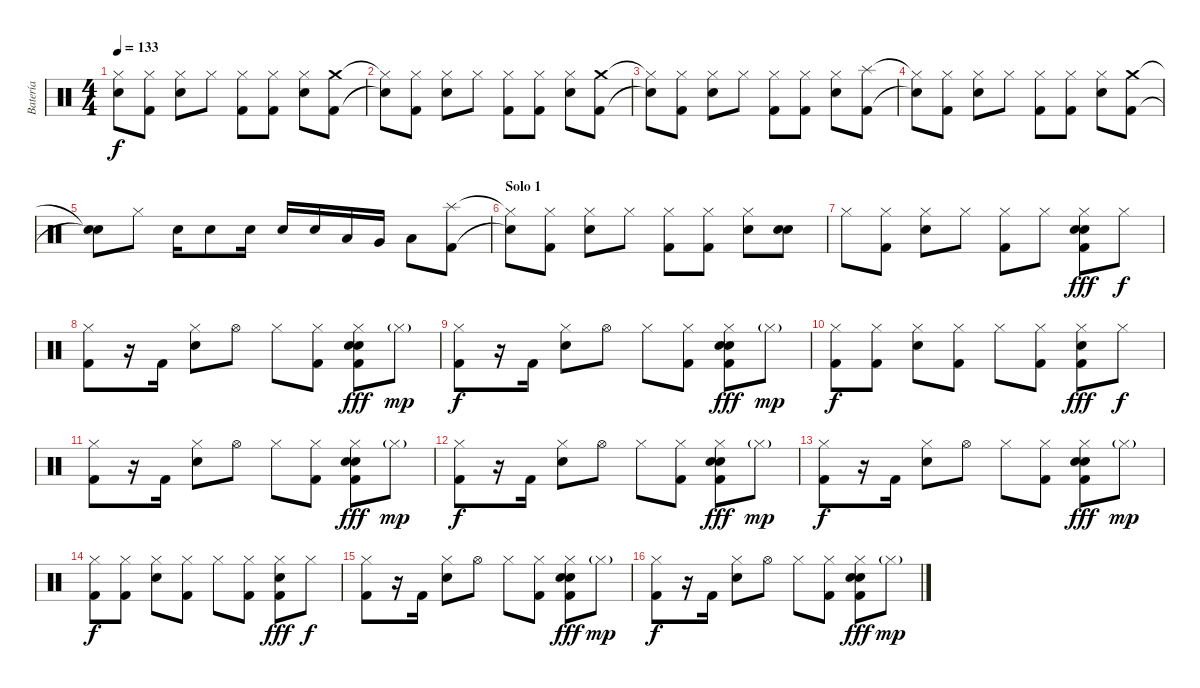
\track ("Batería" "Batería") {instrument percussion}
\staff {score}
\articulation defaults
\ts (4 4)
\tempo 133
\clef neutral
\ks c
("Hi-Hat (closed)"{t} "Snare (hit)"{t}).8{dy f} ("Hi-Hat (closed)" "Kick (hit) 2").8 ("Hi-Hat (closed)" "Snare (hit) 2").8 "Hi-Hat (closed)".8 ("Hi-Hat (closed)" "Kick (hit) 2").8 ("Hi-Hat (closed)" "Kick (hit) 2").8 ("Hi-Hat (closed)" "Snare (hit) 2").8 ("Crash medium (hit)" "Kick (hit) 2").8 |
("Hi-Hat (closed)"{t} "Snare (hit)"{t}).8 ("Hi-Hat (closed)" "Kick (hit) 2").8 ("Hi-Hat (closed)" "Snare (hit) 2").8 "Hi-Hat (closed)".8 ("Hi-Hat (closed)" "Kick (hit) 2").8 ("Hi-Hat (closed)" "Kick (hit) 2").8 ("Hi-Hat (closed)" "Snare (hit) 2").8 ("Crash medium (hit)" "Kick (hit) 2").8 |
("Hi-Hat (closed)"{t} "Snare (hit)"{t}).8 ("Hi-Hat (closed)" "Kick (hit) 2").8 ("Hi-Hat (closed)" "Snare (hit) 2").8 "Hi-Hat (closed)".8 ("Hi-Hat (closed)" "Kick (hit) 2").8 ("Hi-Hat (closed)" "Kick (hit) 2").8 ("Hi-Hat (closed)" "Snare (hit) 2").8 ("Splash (hit)" "Kick (hit) 2").8 |
("Hi-Hat (closed)"{t} "Snare (hit)"{t}).8 ("Hi-Hat (closed)" "Kick (hit) 2").8 ("Hi-Hat (closed)" "Snare (hit) 2").8 "Hi-Hat (closed)".8 ("Hi-Hat (closed)" "Kick (hit) 2").8 ("Hi-Hat (closed)" "Kick (hit) 2").8 ("Hi-Hat (closed)" "Snare (hit) 2").8 ("Crash medium (hit)" "Kick (hit) 2").8 |
("Snare (hit)"{t} "Snare (hit)"{t}).8 "Hi-Hat (closed)".8 "Snare (hit) 2".16 "Snare (hit) 2".8 "Snare (hit) 2".16 "Snare (hit) 2".16 "Snare (hit) 2".16 "Low Tom (hit)".16 "Very Low Tom (hit)".16 "Low Floor Tom (hit)".8 ("Splash (hit)" "Kick (hit) 2").8 |
\section ("" "Solo 1")
("Hi-Hat (closed)"{t} "Snare (hit)"{t}).8 ("Hi-Hat (closed)" "Kick (hit) 2").8 ("Hi-Hat (closed)" "Snare (hit) 2").8 "Hi-Hat (closed)".8 ("Hi-Hat (closed)" "Kick (hit) 2").8 ("Hi-Hat (closed)" "Kick (hit) 2").8 ("Hi-Hat (closed)" "Snare (hit) 2").8 ("Snare (hit) 2" "Snare (hit) 2").8 |
"Hi-Hat (closed)".8 ("Hi-Hat (closed)" "Kick (hit) 2").8 ("Hi-Hat (closed)" "Snare (hit) 2").8 "Hi-Hat (closed)".8 ("Hi-Hat (closed)" "Kick (hit) 2").8 "Hi-Hat (closed)".8 ("Hi-Hat (closed)" "Snare (hit) 2" "Snare (hit) 2" "Kick (hit) 2").8{dy fff} "Hi-Hat (closed)".8{dy f} |
("Hi-Hat (closed)" "Kick (hit) 2").8 r.16 "Kick (hit) 2".16 ("Hi-Hat (closed)" "Snare (hit) 2").8 "Hi-Hat (open)".8 "Hi-Hat (closed)".8 ("Hi-Hat (closed)" "Kick (hit) 2").8 ("Hi-Hat (closed)" "Snare (hit) 2" "Snare (hit) 2" "Kick (hit) 2").8{dy fff} "Hi-Hat (closed)"{g}.8{dy mp} |
("Hi-Hat (closed)" "Kick (hit) 2").8{dy f} r.16 "Kick (hit) 2".16 ("Hi-Hat (closed)" "Snare (hit) 2").8 "Hi-Hat (open)".8 "Hi-Hat (closed)".8 ("Hi-Hat (closed)" "Kick (hit) 2").8 ("Hi-Hat (closed)" "Snare (hit) 2" "Snare (hit) 2" "Kick (hit) 2").8{dy fff} "Hi-Hat (closed)"{g}.8{dy mp} |
("Hi-Hat (closed)" "Kick (hit) 2").8{dy f} ("Hi-Hat (closed)" "Kick (hit) 2").8 ("Hi-Hat (closed)" "Snare (hit) 2").8 ("Hi-Hat (closed)" "Kick (hit) 2").8 "Hi-Hat (closed)".8 ("Hi-Hat (closed)" "Kick (hit) 2").8 ("Hi-Hat (closed)" "Snare (hit) 2" "Kick (hit) 2").8{dy fff} "Hi-Hat (closed)".8{dy f} |
("Hi-Hat (closed)" "Kick (hit) 2").8 r.16 "Kick (hit) 2".16 ("Hi-Hat (closed)" "Snare (hit) 2").8 "Hi-Hat (open)".8 "Hi-Hat (closed)".8 ("Hi-Hat (closed)" "Kick (hit) 2").8 ("Hi-Hat (closed)" "Snare (hit) 2" "Snare (hit) 2" "Kick (hit) 2").8{dy fff} "Hi-Hat (closed)"{g}.8{dy mp} |
("Hi-Hat (closed)" "Kick (hit) 2").8{dy f} r.16 "Kick (hit) 2".16 ("Hi-Hat (closed)" "Snare (hit) 2").8 "Hi-Hat (open)".8 "Hi-Hat (closed)".8 ("Hi-Hat (closed)" "Kick (hit) 2").8 ("Hi-Hat (closed)" "Snare (hit) 2" "Snare (hit) 2" "Kick (hit) 2").8{dy fff} "Hi-Hat (closed)"{g}.8{dy mp} |
("Hi-Hat (closed)" "Kick (hit) 2").8{dy f} r.16 "Kick (hit) 2".16 ("Hi-Hat (closed)" "Snare (hit) 2").8 "Hi-Hat (open)".8 "Hi-Hat (closed)".8 ("Hi-Hat (closed)" "Kick (hit) 2").8 ("Hi-Hat (closed)" "Snare (hit) 2" "Snare (hit) 2" "Kick (hit) 2").8{dy fff} "Hi-Hat (closed)"{g}.8{dy mp} |
("Hi-Hat (closed)" "Kick (hit) 2").8{dy f} ("Hi-Hat (closed)" "Kick (hit) 2").8 ("Hi-Hat (closed)" "Snare (hit) 2").8 ("Hi-Hat (closed)" "Kick (hit) 2").8 "Hi-Hat (closed)".8 ("Hi-Hat (closed)" "Kick (hit) 2").8 ("Hi-Hat (closed)" "Snare (hit) 2" "Kick (hit) 2").8{dy fff} "Hi-Hat (closed)".8{dy f} |
("Hi-Hat (closed)" "Kick (hit) 2").8 r.16 "Kick (hit) 2".16 ("Hi-Hat (closed)" "Snare (hit) 2").8 "Hi-Hat (open)".8 "Hi-Hat (closed)".8 ("Hi-Hat (closed)" "Kick (hit) 2").8 ("Hi-Hat (closed)" "Snare (hit) 2" "Snare (hit) 2" "Kick (hit) 2").8{dy fff} "Hi-Hat (closed)"{g}.8{dy mp} |
("Hi-Hat (closed)" "Kick (hit) 2").8{dy f} r.16 "Kick (hit) 2".16 ("Hi-Hat (closed)" "Snare (hit) 2").8 "Hi-Hat (open)".8 "Hi-Hat (closed)".8 ("Hi-Hat (closed)" "Kick (hit) 2").8 ("Hi-Hat (closed)" "Snare (hit) 2" "Snare (hit) 2" "Kick (hit) 2").8{dy fff} "Hi-Hat (closed)"{g}.8{dy mp}
